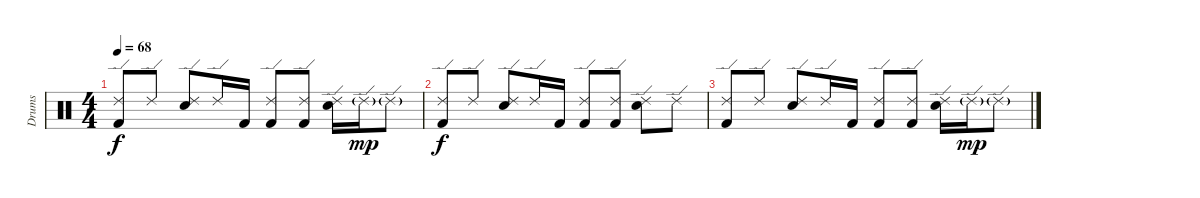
\track ("Drums" "Drums") {instrument percussion}
\staff {score}
\articulation defaults
\ts (4 4)
\tempo 68
\clef neutral
\ks aminor
("Ride (edge) 2" "Kick (hit) 2").8{dy f} "Ride (edge) 2".8 ("Ride (edge) 2" "Snare (hit) 2").8 "Ride (edge) 2".16 "Kick (hit) 2".16 ("Ride (edge) 2" "Kick (hit) 2").8 ("Ride (edge) 2" "Kick (hit) 2").8 ("Ride (edge) 2" "Snare (hit) 2").16 "Ride (edge) 2"{g}.16{dy mp} "Ride (edge) 2"{g}.8 |
("Ride (edge) 2" "Kick (hit) 2").8{dy f} "Ride (edge) 2".8 ("Ride (edge) 2" "Snare (hit) 2").8 "Ride (edge) 2".16 "Kick (hit) 2".16 ("Ride (edge) 2" "Kick (hit) 2").8 ("Ride (edge) 2" "Kick (hit) 2").8 ("Ride (edge) 2" "Snare (hit) 2").8 "Ride (edge) 2".8 |
("Ride (edge) 2" "Kick (hit) 2").8 "Ride (edge) 2".8 ("Ride (edge) 2" "Snare (hit) 2").8 "Ride (edge) 2".16 "Kick (hit) 2".16 ("Ride (edge) 2" "Kick (hit) 2").8 ("Ride (edge) 2" "Kick (hit) 2").8 ("Ride (edge) 2" "Snare (hit) 2").16 "Ride (edge) 2"{g}.16{dy mp} "Ride (edge) 2"{g}.8
